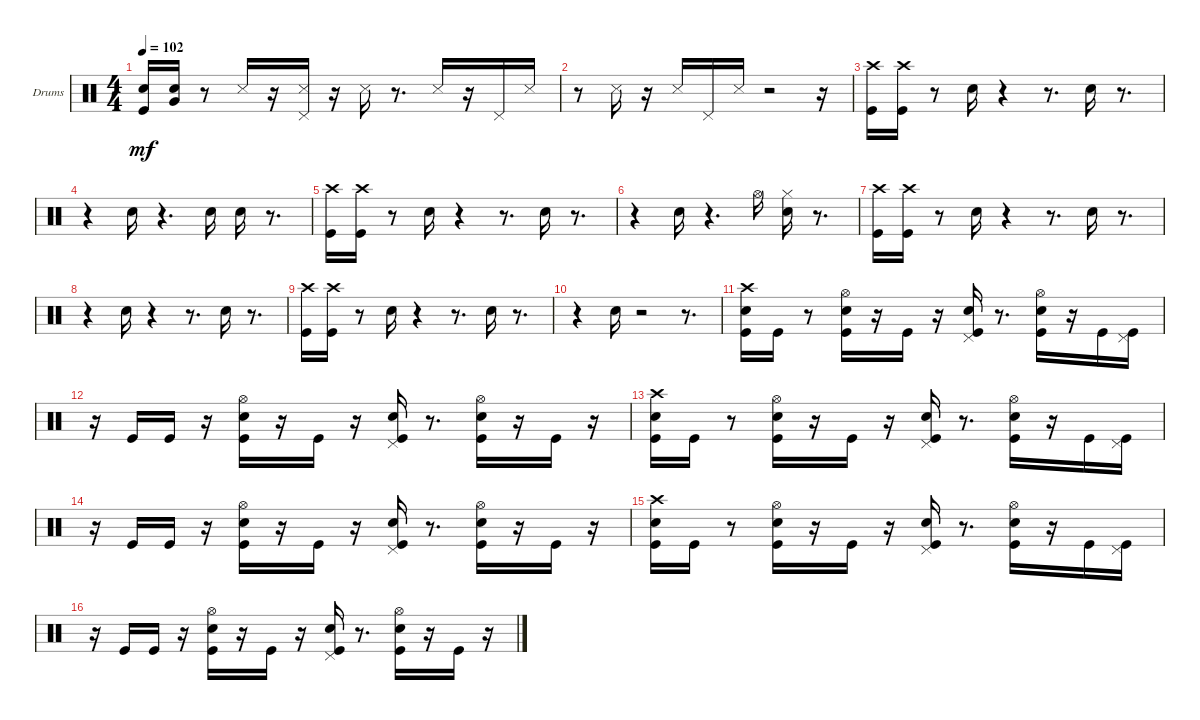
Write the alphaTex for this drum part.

\defaultSystemsLayout 4
\bracketExtendMode groupsimilarinstruments
\firstSystemTrackNameOrientation horizontal
\otherSystemsTrackNameOrientation horizontal
\track ("Drumkit" "Drums") {instrument percussion}
\staff {score}
\articulation defaults
\ts (4 4)
\tempo 102
\clef neutral
\scale
0.333333
\ks c
("Snare (hit) 2" "Kick (hit)").16{dy mf} ("Snare (hit) 2" "Very Low Tom (hit)").16 r.8 "Snare (side stick) 3".16 r.16 ("Pedal Hi-Hat (hit)" "Snare (side stick) 3").16 r.16 "Snare (side stick) 3".16 r.8{d} "Snare (side stick) 3".16 r.16 "Pedal Hi-Hat (hit)".16 "Snare (side stick) 3".16 |
\scale
0.333333 r.8 "Snare (side stick) 3".16 r.16 "Snare (side stick) 3".16 "Pedal Hi-Hat (hit)".16 "Snare (side stick) 3".16 r.2 r.16 |
\scale
0.333333 ("Crash high (hit)" "Kick (hit)").16 ("Crash high (hit)" "Kick (hit)").16 r.8 "Snare (hit) 2".16 r.4 r.8{d} "Snare (hit) 2".16 r.8{d} |
\scale
0.333333 r.4 "Snare (hit) 2".16 r.4{d} "Snare (hit) 2".16 "Snare (hit) 2".16 r.8{d} |
\scale
0.333333 ("Crash high (hit)" "Kick (hit)").16 ("Crash high (hit)" "Kick (hit)").16 r.8 "Snare (hit) 2".16 r.4 r.8{d} "Snare (hit) 2".16 r.8{d} |
\scale
0.333333 r.4 "Snare (hit) 2".16 r.4{d} "Hi-Hat (open)".16 ("Hi-Hat (closed)" "Snare (hit) 2").16 r.8{d} |
\scale
0.333333 ("Crash high (hit)" "Kick (hit)").16 ("Crash high (hit)" "Kick (hit)").16 r.8 "Snare (hit) 2".16 r.4 r.8{d} "Snare (hit) 2".16 r.8{d} |
\scale
0.333333 r.4 "Snare (hit) 2".16 r.4 r.8{d} "Snare (hit) 2".16 r.8{d} |
\scale
0.333333 ("Crash high (hit)" "Kick (hit)").16 ("Crash high (hit)" "Kick (hit)").16 r.8 "Snare (hit) 2".16 r.4 r.8{d} "Snare (hit) 2".16 r.8{d} |
\scale
0.333333 r.4 "Snare (hit) 2".16 r.2 r.8{d} |
\scale
0.333333 ("Crash high (hit)" "Snare (hit) 2" "Kick (hit)").16 "Kick (hit)".16 r.8 ("Hi-Hat (open)" "Snare (hit) 2" "Kick (hit)").16 r.16 "Kick (hit)".16 r.16 ("Pedal Hi-Hat (hit)" "Snare (hit) 2" "Kick (hit)").16 r.8{d} ("Hi-Hat (open)" "Snare (hit) 2" "Kick (hit)").16 r.16 "Kick (hit)".16 ("Pedal Hi-Hat (hit)" "Kick (hit)").16 |
\scale
0.333333 r.16 "Kick (hit)".16 "Kick (hit)".16 r.16 ("Hi-Hat (open)" "Snare (hit) 2" "Kick (hit)").16 r.16 "Kick (hit)".16 r.16 ("Pedal Hi-Hat (hit)" "Snare (hit) 2" "Kick (hit)").16 r.8{d} ("Hi-Hat (open)" "Snare (hit) 2" "Kick (hit)").16 r.16 "Kick (hit)".16 r.16 |
\scale
0.333333 ("Crash high (hit)" "Snare (hit) 2" "Kick (hit)").16 "Kick (hit)".16 r.8 ("Hi-Hat (open)" "Snare (hit) 2" "Kick (hit)").16 r.16 "Kick (hit)".16 r.16 ("Pedal Hi-Hat (hit)" "Snare (hit) 2" "Kick (hit)").16 r.8{d} ("Hi-Hat (open)" "Snare (hit) 2" "Kick (hit)").16 r.16 "Kick (hit)".16 ("Pedal Hi-Hat (hit)" "Kick (hit)").16 |
\scale
0.333333 r.16 "Kick (hit)".16 "Kick (hit)".16 r.16 ("Hi-Hat (open)" "Snare (hit) 2" "Kick (hit)").16 r.16 "Kick (hit)".16 r.16 ("Pedal Hi-Hat (hit)" "Snare (hit) 2" "Kick (hit)").16 r.8{d} ("Hi-Hat (open)" "Snare (hit) 2" "Kick (hit)").16 r.16 "Kick (hit)".16 r.16 |
\scale
0.333333 ("Crash high (hit)" "Snare (hit) 2" "Kick (hit)").16 "Kick (hit)".16 r.8 ("Hi-Hat (open)" "Snare (hit) 2" "Kick (hit)").16 r.16 "Kick (hit)".16 r.16 ("Pedal Hi-Hat (hit)" "Snare (hit) 2" "Kick (hit)").16 r.8{d} ("Hi-Hat (open)" "Snare (hit) 2" "Kick (hit)").16 r.16 "Kick (hit)".16 ("Pedal Hi-Hat (hit)" "Kick (hit)").16 |
\scale
0.333333 r.16 "Kick (hit)".16 "Kick (hit)".16 r.16 ("Hi-Hat (open)" "Snare (hit) 2" "Kick (hit)").16 r.16 "Kick (hit)".16 r.16 ("Pedal Hi-Hat (hit)" "Snare (hit) 2" "Kick (hit)").16 r.8{d} ("Hi-Hat (open)" "Snare (hit) 2" "Kick (hit)").16 r.16 "Kick (hit)".16 r.16
